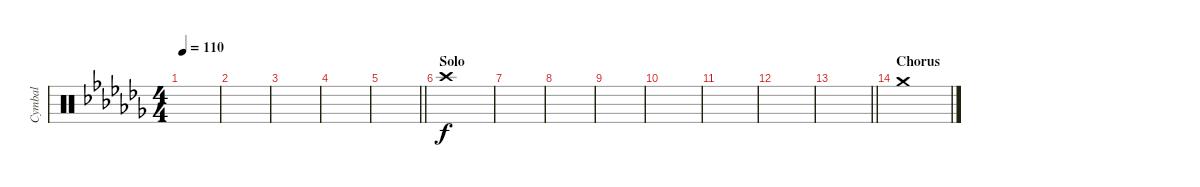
\track ("Cymbal" "Cymbal") {instrument percussion}
\staff {score}
\articulation defaults
\ts (4 4)
\tempo 110
\clef neutral
\ks abminor
|
|
|
|
\barLineRight lightlight
|
\section ("" "Solo")
"Crash high (hit)".1 |
|
|
|
|
|
|
\barLineRight lightlight
|
\section ("" "Chorus")
"Crash medium (hit)".1
